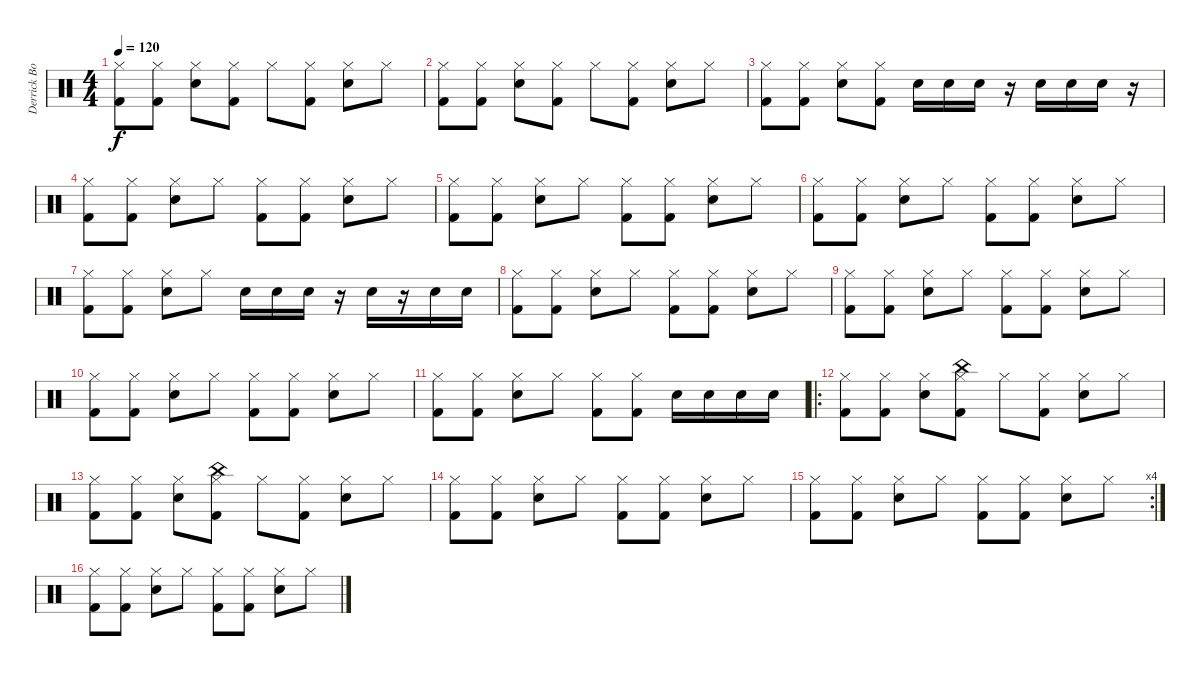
\track ("Derrick Bostrom" "Derrick Bo") {instrument percussion}
\staff {score}
\articulation defaults
\ts (4 4)
\tempo 120
\clef neutral
\ks c
("Hi-Hat (closed)" "Kick (hit) 2").8{dy f} ("Hi-Hat (closed)" "Kick (hit) 2").8 ("Hi-Hat (closed)" "Snare (hit) 2").8 ("Hi-Hat (closed)" "Kick (hit) 2").8 "Hi-Hat (closed)".8 ("Hi-Hat (closed)" "Kick (hit) 2").8 ("Hi-Hat (closed)" "Snare (hit) 2").8 "Hi-Hat (closed)".8 |
("Hi-Hat (closed)" "Kick (hit) 2").8 ("Hi-Hat (closed)" "Kick (hit) 2").8 ("Hi-Hat (closed)" "Snare (hit) 2").8 ("Hi-Hat (closed)" "Kick (hit) 2").8 "Hi-Hat (closed)".8 ("Hi-Hat (closed)" "Kick (hit) 2").8 ("Hi-Hat (closed)" "Snare (hit) 2").8 "Hi-Hat (closed)".8 |
("Hi-Hat (closed)" "Kick (hit) 2").8 ("Hi-Hat (closed)" "Kick (hit) 2").8 ("Hi-Hat (closed)" "Snare (hit) 2").8 ("Hi-Hat (closed)" "Kick (hit) 2").8 "Snare (hit) 2".16 "Snare (hit) 2".16 "Snare (hit) 2".16 r.16 "Snare (hit) 2".16 "Snare (hit) 2".16 "Snare (hit) 2".16 r.16 |
("Hi-Hat (closed)" "Kick (hit) 2").8 ("Hi-Hat (closed)" "Kick (hit) 2").8 ("Hi-Hat (closed)" "Snare (hit) 2").8 "Hi-Hat (closed)".8 ("Hi-Hat (closed)" "Kick (hit) 2").8 ("Hi-Hat (closed)" "Kick (hit) 2").8 ("Hi-Hat (closed)" "Snare (hit) 2").8 "Hi-Hat (closed)".8 |
("Hi-Hat (closed)" "Kick (hit) 2").8 ("Hi-Hat (closed)" "Kick (hit) 2").8 ("Hi-Hat (closed)" "Snare (hit) 2").8 "Hi-Hat (closed)".8 ("Hi-Hat (closed)" "Kick (hit) 2").8 ("Hi-Hat (closed)" "Kick (hit) 2").8 ("Hi-Hat (closed)" "Snare (hit) 2").8 "Hi-Hat (closed)".8 |
("Hi-Hat (closed)" "Kick (hit) 2").8 ("Hi-Hat (closed)" "Kick (hit) 2").8 ("Hi-Hat (closed)" "Snare (hit) 2").8 "Hi-Hat (closed)".8 ("Hi-Hat (closed)" "Kick (hit) 2").8 ("Hi-Hat (closed)" "Kick (hit) 2").8 ("Hi-Hat (closed)" "Snare (hit) 2").8 "Hi-Hat (closed)".8 |
("Hi-Hat (closed)" "Kick (hit) 2").8 ("Hi-Hat (closed)" "Kick (hit) 2").8 ("Hi-Hat (closed)" "Snare (hit) 2").8 "Hi-Hat (closed)".8 "Snare (hit) 2".16 "Snare (hit) 2".16 "Snare (hit) 2".16 r.16 "Snare (hit) 2".16 r.16 "Snare (hit) 2".16 "Snare (hit) 2".16 |
("Hi-Hat (closed)" "Kick (hit) 2").8 ("Hi-Hat (closed)" "Kick (hit) 2").8 ("Hi-Hat (closed)" "Snare (hit) 2").8 "Hi-Hat (closed)".8 ("Hi-Hat (closed)" "Kick (hit) 2").8 ("Hi-Hat (closed)" "Kick (hit) 2").8 ("Hi-Hat (closed)" "Snare (hit) 2").8 "Hi-Hat (closed)".8 |
("Hi-Hat (closed)" "Kick (hit) 2").8 ("Hi-Hat (closed)" "Kick (hit) 2").8 ("Hi-Hat (closed)" "Snare (hit) 2").8 "Hi-Hat (closed)".8 ("Hi-Hat (closed)" "Kick (hit) 2").8 ("Hi-Hat (closed)" "Kick (hit) 2").8 ("Hi-Hat (closed)" "Snare (hit) 2").8 "Hi-Hat (closed)".8 |
("Hi-Hat (closed)" "Kick (hit) 2").8 ("Hi-Hat (closed)" "Kick (hit) 2").8 ("Hi-Hat (closed)" "Snare (hit) 2").8 "Hi-Hat (closed)".8 ("Hi-Hat (closed)" "Kick (hit) 2").8 ("Hi-Hat (closed)" "Kick (hit) 2").8 ("Hi-Hat (closed)" "Snare (hit) 2").8 "Hi-Hat (closed)".8 |
("Hi-Hat (closed)" "Kick (hit) 2").8 ("Hi-Hat (closed)" "Kick (hit) 2").8 ("Hi-Hat (closed)" "Snare (hit) 2").8 "Hi-Hat (closed)".8 ("Hi-Hat (closed)" "Kick (hit) 2").8 ("Hi-Hat (closed)" "Kick (hit) 2").8 "Snare (hit) 2".16 "Snare (hit) 2".16 "Snare (hit) 2".16 "Snare (hit) 2".16 |
\ro
("Hi-Hat (closed)" "Kick (hit) 2").8 ("Hi-Hat (closed)" "Kick (hit) 2").8 ("Hi-Hat (closed)" "Snare (hit) 2").8 ("Hi-Hat (closed)" "China (hit)" "Kick (hit) 2").8 "Hi-Hat (closed)".8 ("Hi-Hat (closed)" "Kick (hit) 2").8 ("Hi-Hat (closed)" "Snare (hit) 2").8 "Hi-Hat (closed)".8 |
("Hi-Hat (closed)" "Kick (hit) 2").8 ("Hi-Hat (closed)" "Kick (hit) 2").8 ("Hi-Hat (closed)" "Snare (hit) 2").8 ("Hi-Hat (closed)" "China (hit)" "Kick (hit) 2").8 "Hi-Hat (closed)".8 ("Hi-Hat (closed)" "Kick (hit) 2").8 ("Hi-Hat (closed)" "Snare (hit) 2").8 "Hi-Hat (closed)".8 |
("Hi-Hat (closed)" "Kick (hit) 2").8 ("Hi-Hat (closed)" "Kick (hit) 2").8 ("Hi-Hat (closed)" "Snare (hit) 2").8 "Hi-Hat (closed)".8 ("Hi-Hat (closed)" "Kick (hit) 2").8 ("Hi-Hat (closed)" "Kick (hit) 2").8 ("Hi-Hat (closed)" "Snare (hit) 2").8 "Hi-Hat (closed)".8 |
\rc 4
("Hi-Hat (closed)" "Kick (hit) 2").8 ("Hi-Hat (closed)" "Kick (hit) 2").8 ("Hi-Hat (closed)" "Snare (hit) 2").8 "Hi-Hat (closed)".8 ("Hi-Hat (closed)" "Kick (hit) 2").8 ("Hi-Hat (closed)" "Kick (hit) 2").8 ("Hi-Hat (closed)" "Snare (hit) 2").8 "Hi-Hat (closed)".8 |
("Hi-Hat (closed)" "Kick (hit) 2").8 ("Hi-Hat (closed)" "Kick (hit) 2").8 ("Hi-Hat (closed)" "Snare (hit) 2").8 "Hi-Hat (closed)".8 ("Hi-Hat (closed)" "Kick (hit) 2").8 ("Hi-Hat (closed)" "Kick (hit) 2").8 ("Hi-Hat (closed)" "Snare (hit) 2").8 "Hi-Hat (closed)".8
